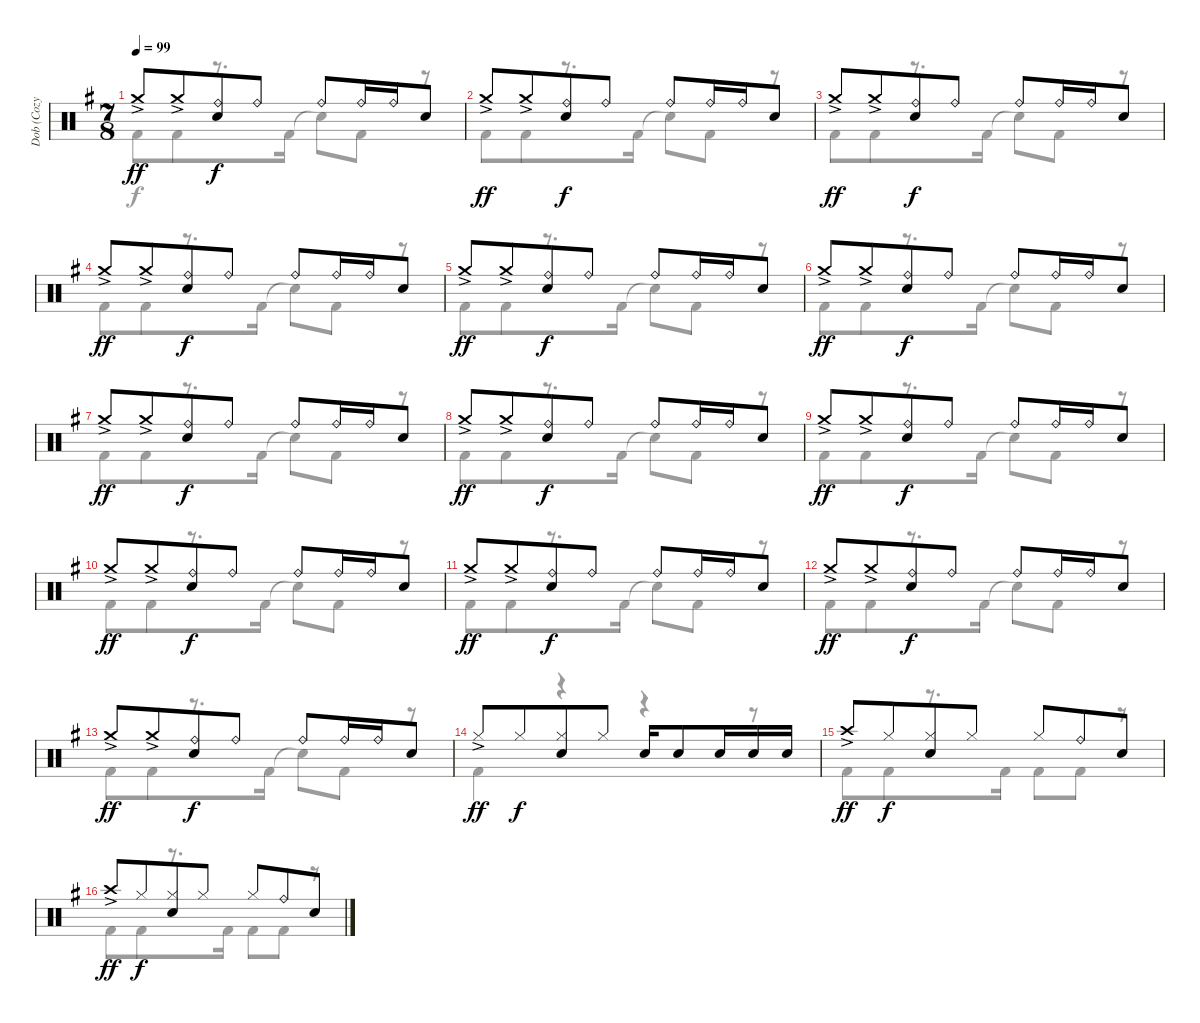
\track ("Dob (Cozy Powell)" "Dob (Cozy ") {instrument percussion}
\staff {score}
\articulation defaults
\voice
\ts (7 8)
\tempo 99
\clef neutral
\ks g "Crash medium (hit)"{ac}.8{dy ff} "Crash medium (hit)"{ac}.8
("Ride (bell)" "Electric Snare (hit)").8{dy f beam merge} "Ride (bell)".8{beam split} "Ride (bell)".8{beam merge} "Ride (bell)".16 "Ride (bell)".16 "Electric Snare (hit)".8 |
"Crash medium (hit)"{ac}.8{dy ff} "Crash medium (hit)"{ac}.8 ("Ride (bell)" "Electric Snare (hit)").8{dy f beam merge} "Ride (bell)".8{beam split} "Ride (bell)".8{beam merge} "Ride (bell)".16 "Ride (bell)".16 "Electric Snare (hit)".8 |
"Crash medium (hit)"{ac}.8{dy ff} "Crash medium (hit)"{ac}.8 ("Ride (bell)" "Electric Snare (hit)").8{dy f beam merge} "Ride (bell)".8{beam split} "Ride (bell)".8{beam merge} "Ride (bell)".16 "Ride (bell)".16 "Electric Snare (hit)".8 |
"Crash medium (hit)"{ac}.8{dy ff} "Crash medium (hit)"{ac}.8 ("Ride (bell)" "Electric Snare (hit)").8{dy f beam merge} "Ride (bell)".8{beam split} "Ride (bell)".8{beam merge} "Ride (bell)".16 "Ride (bell)".16 "Electric Snare (hit)".8 |
"Crash medium (hit)"{ac}.8{dy ff} "Crash medium (hit)"{ac}.8 ("Ride (bell)" "Electric Snare (hit)").8{dy f beam merge} "Ride (bell)".8{beam split} "Ride (bell)".8{beam merge} "Ride (bell)".16 "Ride (bell)".16 "Electric Snare (hit)".8 |
"Crash medium (hit)"{ac}.8{dy ff} "Crash medium (hit)"{ac}.8 ("Ride (bell)" "Electric Snare (hit)").8{dy f beam merge} "Ride (bell)".8{beam split} "Ride (bell)".8{beam merge} "Ride (bell)".16 "Ride (bell)".16 "Electric Snare (hit)".8 |
"Crash medium (hit)"{ac}.8{dy ff} "Crash medium (hit)"{ac}.8 ("Ride (bell)" "Electric Snare (hit)").8{dy f beam merge} "Ride (bell)".8{beam split} "Ride (bell)".8{beam merge} "Ride (bell)".16 "Ride (bell)".16 "Electric Snare (hit)".8 |
"Crash medium (hit)"{ac}.8{dy ff} "Crash medium (hit)"{ac}.8 ("Ride (bell)" "Electric Snare (hit)").8{dy f beam merge} "Ride (bell)".8{beam split} "Ride (bell)".8{beam merge} "Ride (bell)".16 "Ride (bell)".16 "Electric Snare (hit)".8 |
"Crash medium (hit)"{ac}.8{dy ff} "Crash medium (hit)"{ac}.8 ("Ride (bell)" "Electric Snare (hit)").8{dy f beam merge} "Ride (bell)".8{beam split} "Ride (bell)".8{beam merge} "Ride (bell)".16 "Ride (bell)".16 "Electric Snare (hit)".8 |
"Crash medium (hit)"{ac}.8{dy ff} "Crash medium (hit)"{ac}.8 ("Ride (bell)" "Electric Snare (hit)").8{dy f beam merge} "Ride (bell)".8{beam split} "Ride (bell)".8{beam merge} "Ride (bell)".16 "Ride (bell)".16 "Electric Snare (hit)".8 |
"Crash medium (hit)"{ac}.8{dy ff} "Crash medium (hit)"{ac}.8 ("Ride (bell)" "Electric Snare (hit)").8{dy f beam merge} "Ride (bell)".8{beam split} "Ride (bell)".8{beam merge} "Ride (bell)".16 "Ride (bell)".16 "Electric Snare (hit)".8 |
"Crash medium (hit)"{ac}.8{dy ff} "Crash medium (hit)"{ac}.8 ("Ride (bell)" "Electric Snare (hit)").8{dy f beam merge} "Ride (bell)".8{beam split} "Ride (bell)".8{beam merge} "Ride (bell)".16 "Ride (bell)".16 "Electric Snare (hit)".8 |
"Crash medium (hit)"{ac}.8{dy ff} "Crash medium (hit)"{ac}.8 ("Ride (bell)" "Electric Snare (hit)").8{dy f beam merge} "Ride (bell)".8{beam split} "Ride (bell)".8{beam merge} "Ride (bell)".16 "Ride (bell)".16 "Electric Snare (hit)".8 |
"Hi-Hat (closed)"{ac}.8{dy ff} "Hi-Hat (closed)".8{dy f} ("Hi-Hat (closed)" "Electric Snare (hit)").8{beam merge} "Hi-Hat (closed)".8{beam split} "Electric Snare (hit)".16 "Electric Snare (hit)".8{beam merge} "Electric Snare (hit)".16 "Electric Snare (hit)".16 "Electric Snare (hit)".16 |
"Crash high (hit)"{ac}.8{dy ff} "Hi-Hat (closed)".8{dy f} ("Hi-Hat (closed)" "Electric Snare (hit)").8{beam merge} "Hi-Hat (closed)".8{beam split} "Hi-Hat (closed)".8{beam merge} "Ride (bell)".8 "Electric Snare (hit)".8 |
"Crash high (hit)"{ac}.8{dy ff} "Hi-Hat (closed)".8{dy f} ("Hi-Hat (closed)" "Electric Snare (hit)").8{beam merge} "Hi-Hat (closed)".8{beam split} "Hi-Hat (closed)".8{beam merge} "Ride (bell)".8 "Electric Snare (hit)".8
\voice
\clef neutral
\ottava regular
\simile none
\ks g "Kick (hit) 2".8{dy f beam merge} "Kick (hit) 2".8
r.8{d} "Kick (hit) 2".16 "Snare (hit)"{t}.8{beam merge} "Kick (hit) 2".8 r.8 |
"Kick (hit) 2".8{beam merge} "Kick (hit) 2".8 r.8{d} "Kick (hit) 2".16 "Snare (hit)"{t}.8{beam merge} "Kick (hit) 2".8 r.8 |
"Kick (hit) 2".8{beam merge} "Kick (hit) 2".8 r.8{d} "Kick (hit) 2".16 "Snare (hit)"{t}.8{beam merge} "Kick (hit) 2".8 r.8 |
"Kick (hit) 2".8{beam merge} "Kick (hit) 2".8 r.8{d} "Kick (hit) 2".16 "Snare (hit)"{t}.8{beam merge} "Kick (hit) 2".8 r.8 |
"Kick (hit) 2".8{beam merge} "Kick (hit) 2".8 r.8{d} "Kick (hit) 2".16 "Snare (hit)"{t}.8{beam merge} "Kick (hit) 2".8 r.8 |
"Kick (hit) 2".8{beam merge} "Kick (hit) 2".8 r.8{d} "Kick (hit) 2".16 "Snare (hit)"{t}.8{beam merge} "Kick (hit) 2".8 r.8 |
"Kick (hit) 2".8{beam merge} "Kick (hit) 2".8 r.8{d} "Kick (hit) 2".16 "Snare (hit)"{t}.8{beam merge} "Kick (hit) 2".8 r.8 |
"Kick (hit) 2".8{beam merge} "Kick (hit) 2".8 r.8{d} "Kick (hit) 2".16 "Snare (hit)"{t}.8{beam merge} "Kick (hit) 2".8 r.8 |
"Kick (hit) 2".8{beam merge} "Kick (hit) 2".8 r.8{d} "Kick (hit) 2".16 "Snare (hit)"{t}.8{beam merge} "Kick (hit) 2".8 r.8 |
"Kick (hit) 2".8{beam merge} "Kick (hit) 2".8 r.8{d} "Kick (hit) 2".16 "Snare (hit)"{t}.8{beam merge} "Kick (hit) 2".8 r.8 |
"Kick (hit) 2".8{beam merge} "Kick (hit) 2".8 r.8{d} "Kick (hit) 2".16 "Snare (hit)"{t}.8{beam merge} "Kick (hit) 2".8 r.8 |
"Kick (hit) 2".8{beam merge} "Kick (hit) 2".8 r.8{d} "Kick (hit) 2".16 "Snare (hit)"{t}.8{beam merge} "Kick (hit) 2".8 r.8 |
"Kick (hit) 2".8{beam merge} "Kick (hit) 2".8 r.8{d} "Kick (hit) 2".16 "Snare (hit)"{t}.8{beam merge} "Kick (hit) 2".8 r.8 |
"Kick (hit) 2".4 r.4 r.4 r.8 |
"Kick (hit) 2".8{beam merge} "Kick (hit) 2".8 r.8{d} "Kick (hit) 2".16 "Kick (hit) 2".8{beam merge} "Kick (hit) 2".8 r.8 |
"Kick (hit) 2".8{beam merge} "Kick (hit) 2".8 r.8{d} "Kick (hit) 2".16 "Kick (hit) 2".8{beam merge} "Kick (hit) 2".8 r.8
